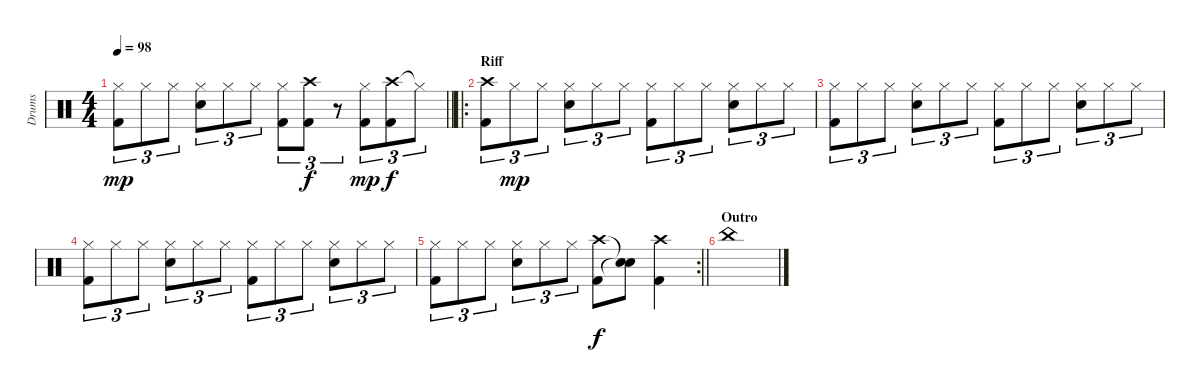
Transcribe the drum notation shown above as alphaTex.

\track ("Drums" "Drums") {instrument percussion}
\staff {score}
\articulation defaults
\ts (4 4)
\tempo 98
\clef neutral
\barLineRight lightlight
\ks c
("Hi-Hat (closed)" "Kick (hit) 2").8{tu (3 2) dy mp} "Hi-Hat (closed)".8{tu (3 2)} "Hi-Hat (closed)".8{tu (3 2)} ("Hi-Hat (closed)" "Snare (hit) 2").8{tu (3 2)} "Hi-Hat (closed)".8{tu (3 2)} "Hi-Hat (closed)".8{tu (3 2)} ("Hi-Hat (closed)" "Kick (hit) 2").8{tu (3 2)} ("Crash high (hit)" "Kick (hit) 2").8{tu (3 2) dy f} r.8{tu (3 2)} ("Hi-Hat (closed)" "Kick (hit) 2").8{tu (3 2) dy mp} ("Crash high (hit)" "Kick (hit) 2").8{tu (3 2) dy f} "Hi-Hat (closed)"{t}.8{tu (3 2)} |
\ro
\section ("" "Riff")
("Crash high (hit)" "Kick (hit) 2").8{tu (3 2)} "Hi-Hat (closed)".8{tu (3 2) dy mp} "Hi-Hat (closed)".8{tu (3 2)} ("Hi-Hat (closed)" "Snare (hit) 2").8{tu (3 2)} "Hi-Hat (closed)".8{tu (3 2)} "Hi-Hat (closed)".8{tu (3 2)} ("Hi-Hat (closed)" "Kick (hit) 2").8{tu (3 2)} "Hi-Hat (closed)".8{tu (3 2)} "Hi-Hat (closed)".8{tu (3 2)} ("Hi-Hat (closed)" "Snare (hit) 2").8{tu (3 2)} "Hi-Hat (closed)".8{tu (3 2)} "Hi-Hat (closed)".8{tu (3 2)} |
("Hi-Hat (closed)" "Kick (hit) 2").8{tu (3 2)} "Hi-Hat (closed)".8{tu (3 2)} "Hi-Hat (closed)".8{tu (3 2)} ("Hi-Hat (closed)" "Snare (hit) 2").8{tu (3 2)} "Hi-Hat (closed)".8{tu (3 2)} "Hi-Hat (closed)".8{tu (3 2)} ("Hi-Hat (closed)" "Kick (hit) 2").8{tu (3 2)} "Hi-Hat (closed)".8{tu (3 2)} "Hi-Hat (closed)".8{tu (3 2)} ("Hi-Hat (closed)" "Snare (hit) 2").8{tu (3 2)} "Hi-Hat (closed)".8{tu (3 2)} "Hi-Hat (closed)".8{tu (3 2)} |
("Hi-Hat (closed)" "Kick (hit) 2").8{tu (3 2)} "Hi-Hat (closed)".8{tu (3 2)} "Hi-Hat (closed)".8{tu (3 2)} ("Hi-Hat (closed)" "Snare (hit) 2").8{tu (3 2)} "Hi-Hat (closed)".8{tu (3 2)} "Hi-Hat (closed)".8{tu (3 2)} ("Hi-Hat (closed)" "Kick (hit) 2").8{tu (3 2)} "Hi-Hat (closed)".8{tu (3 2)} "Hi-Hat (closed)".8{tu (3 2)} ("Hi-Hat (closed)" "Snare (hit) 2").8{tu (3 2)} "Hi-Hat (closed)".8{tu (3 2)} "Hi-Hat (closed)".8{tu (3 2)} |
\rc 2
\barLineRight lightlight
("Hi-Hat (closed)" "Kick (hit) 2").8{tu (3 2)} "Hi-Hat (closed)".8{tu (3 2)} "Hi-Hat (closed)".8{tu (3 2)} ("Hi-Hat (closed)" "Snare (hit) 2").8{tu (3 2)} "Hi-Hat (closed)".8{tu (3 2)} "Hi-Hat (closed)".8{tu (3 2)} ("Crash high (hit)" "Kick (hit) 2").8{dy f} ("Snare (hit)"{t} "Snare (hit)"{t}).8 ("Crash high (hit)" "Kick (hit) 2").4 |
\section ("" "Outro")
"China (hit)".1
